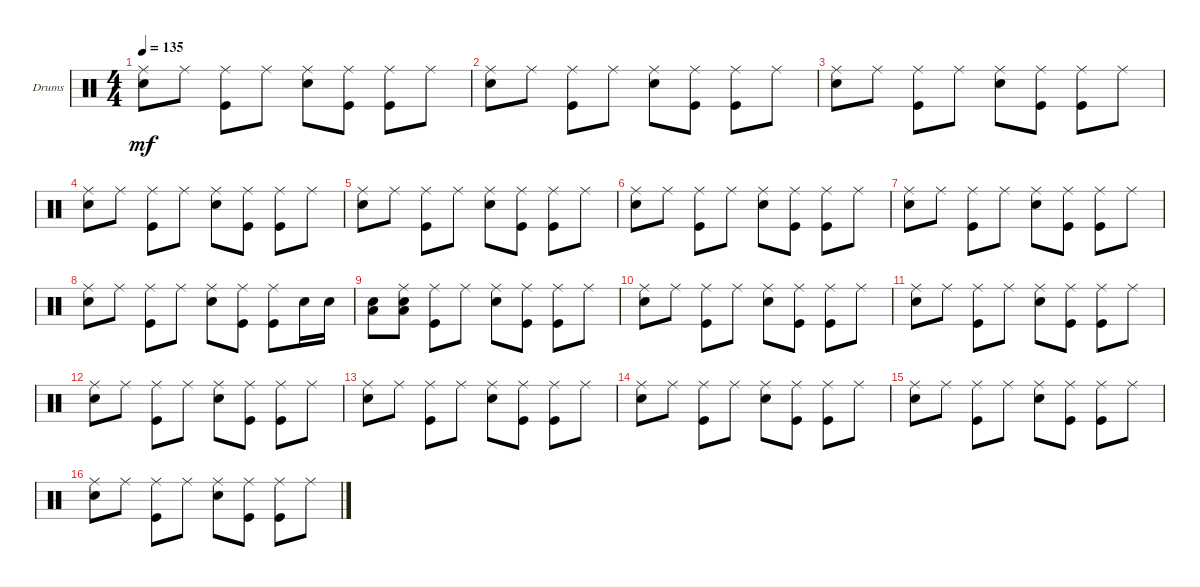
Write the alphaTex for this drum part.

\bracketExtendMode groupsimilarinstruments
\firstSystemTrackNameOrientation horizontal
\otherSystemsTrackNameOrientation horizontal
\track ("Drumkit" "Drums") {instrument percussion}
\staff {score}
\articulation defaults
\ts (4 4)
\tempo 135
\clef neutral
\ks c
("Snare (hit) 2" "Ride (middle)").8{dy mf} "Ride (middle)".8 ("Kick (hit)" "Ride (middle)").8 "Ride (middle)".8 ("Snare (hit) 2" "Ride (middle)").8 ("Kick (hit)" "Ride (middle)").8 ("Kick (hit)" "Ride (middle)").8 "Ride (middle)".8 |
("Snare (hit) 2" "Ride (middle)").8 "Ride (middle)".8 ("Kick (hit)" "Ride (middle)").8 "Ride (middle)".8 ("Snare (hit) 2" "Ride (middle)").8 ("Kick (hit)" "Ride (middle)").8 ("Kick (hit)" "Ride (middle)").8 "Ride (middle)".8 |
("Snare (hit) 2" "Ride (middle)").8 "Ride (middle)".8 ("Kick (hit)" "Ride (middle)").8 "Ride (middle)".8 ("Snare (hit) 2" "Ride (middle)").8 ("Kick (hit)" "Ride (middle)").8 ("Kick (hit)" "Ride (middle)").8 "Ride (middle)".8 |
("Snare (hit) 2" "Ride (middle)").8 "Ride (middle)".8 ("Kick (hit)" "Ride (middle)").8 "Ride (middle)".8 ("Snare (hit) 2" "Ride (middle)").8 ("Kick (hit)" "Ride (middle)").8 ("Kick (hit)" "Ride (middle)").8 "Ride (middle)".8 |
("Snare (hit) 2" "Ride (middle)").8 "Ride (middle)".8 ("Kick (hit)" "Ride (middle)").8 "Ride (middle)".8 ("Snare (hit) 2" "Ride (middle)").8 ("Kick (hit)" "Ride (middle)").8 ("Kick (hit)" "Ride (middle)").8 "Ride (middle)".8 |
("Snare (hit) 2" "Ride (middle)").8 "Ride (middle)".8 ("Kick (hit)" "Ride (middle)").8 "Ride (middle)".8 ("Snare (hit) 2" "Ride (middle)").8 ("Kick (hit)" "Ride (middle)").8 ("Kick (hit)" "Ride (middle)").8 "Ride (middle)".8 |
("Snare (hit) 2" "Ride (middle)").8 "Ride (middle)".8 ("Kick (hit)" "Ride (middle)").8 "Ride (middle)".8 ("Snare (hit) 2" "Ride (middle)").8 ("Kick (hit)" "Ride (middle)").8 ("Kick (hit)" "Ride (middle)").8 "Ride (middle)".8 |
("Snare (hit) 2" "Ride (middle)").8 "Ride (middle)".8 ("Kick (hit)" "Ride (middle)").8 "Ride (middle)".8 ("Snare (hit) 2" "Ride (middle)").8 ("Kick (hit)" "Ride (middle)").8 ("Kick (hit)" "Ride (middle)").8 "Snare (hit) 2".16 "Snare (hit) 2".16 |
("Snare (hit) 2" "Low Tom (hit)").8 ("Ride (middle)" "Snare (hit) 2" "Low Tom (hit)").8 ("Kick (hit)" "Ride (middle)").8 "Ride (middle)".8 ("Snare (hit) 2" "Ride (middle)").8 ("Kick (hit)" "Ride (middle)").8 ("Kick (hit)" "Ride (middle)").8 "Ride (middle)".8 |
("Snare (hit) 2" "Ride (middle)").8 "Ride (middle)".8 ("Kick (hit)" "Ride (middle)").8 "Ride (middle)".8 ("Snare (hit) 2" "Ride (middle)").8 ("Kick (hit)" "Ride (middle)").8 ("Kick (hit)" "Ride (middle)").8 "Ride (middle)".8 |
("Snare (hit) 2" "Ride (middle)").8 "Ride (middle)".8 ("Kick (hit)" "Ride (middle)").8 "Ride (middle)".8 ("Snare (hit) 2" "Ride (middle)").8 ("Kick (hit)" "Ride (middle)").8 ("Kick (hit)" "Ride (middle)").8 "Ride (middle)".8 |
("Snare (hit) 2" "Ride (middle)").8 "Ride (middle)".8 ("Kick (hit)" "Ride (middle)").8 "Ride (middle)".8 ("Snare (hit) 2" "Ride (middle)").8 ("Kick (hit)" "Ride (middle)").8 ("Kick (hit)" "Ride (middle)").8 "Ride (middle)".8 |
("Snare (hit) 2" "Ride (middle)").8 "Ride (middle)".8 ("Kick (hit)" "Ride (middle)").8 "Ride (middle)".8 ("Snare (hit) 2" "Ride (middle)").8 ("Kick (hit)" "Ride (middle)").8 ("Kick (hit)" "Ride (middle)").8 "Ride (middle)".8 |
("Snare (hit) 2" "Ride (middle)").8 "Ride (middle)".8 ("Kick (hit)" "Ride (middle)").8 "Ride (middle)".8 ("Snare (hit) 2" "Ride (middle)").8 ("Kick (hit)" "Ride (middle)").8 ("Kick (hit)" "Ride (middle)").8 "Ride (middle)".8 |
("Snare (hit) 2" "Ride (middle)").8 "Ride (middle)".8 ("Kick (hit)" "Ride (middle)").8 "Ride (middle)".8 ("Snare (hit) 2" "Ride (middle)").8 ("Kick (hit)" "Ride (middle)").8 ("Kick (hit)" "Ride (middle)").8 "Ride (middle)".8 |
("Snare (hit) 2" "Ride (middle)").8 "Ride (middle)".8 ("Kick (hit)" "Ride (middle)").8 "Ride (middle)".8 ("Snare (hit) 2" "Ride (middle)").8 ("Kick (hit)" "Ride (middle)").8 ("Kick (hit)" "Ride (middle)").8 "Ride (middle)".8
